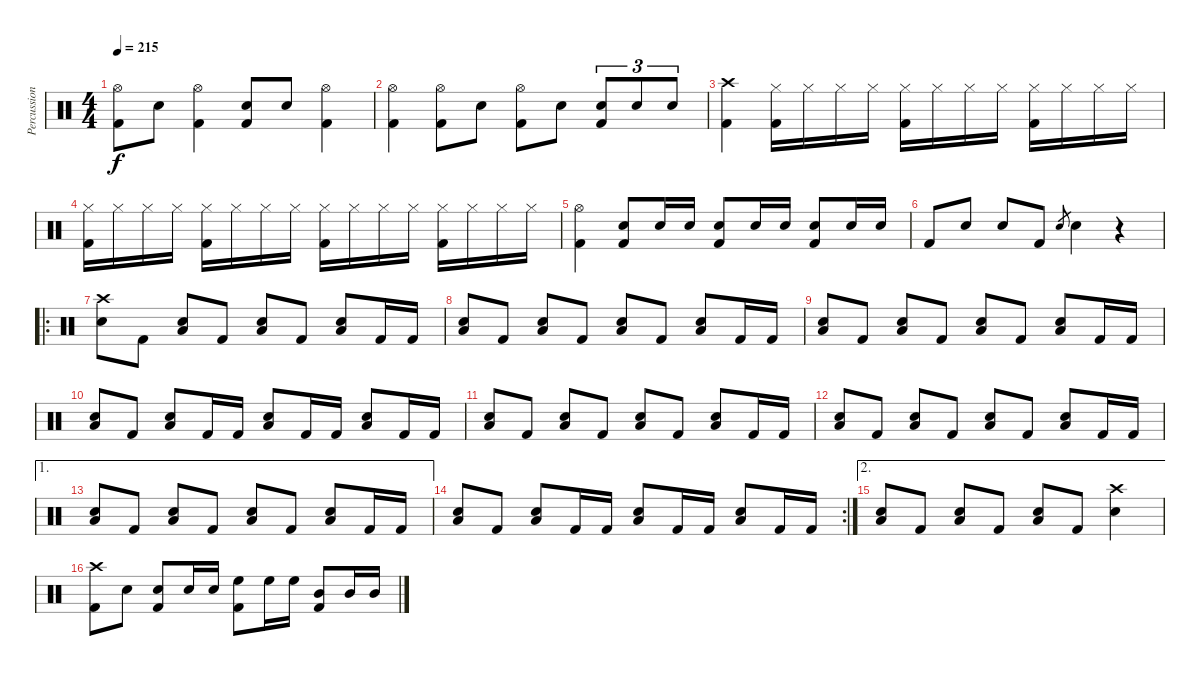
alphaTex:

\track ("Percussion" "Percussion") {instrument percussion}
\staff {score}
\articulation defaults
\ts (4 4)
\tempo 215
\clef neutral
\ks aminor
("Hi-Hat (open)" "Kick (hit) 2").8{dy f} "Snare (hit) 2".8 ("Hi-Hat (open)" "Kick (hit) 2").4 ("Snare (hit) 2" "Kick (hit) 2").8 "Snare (hit) 2".8 ("Hi-Hat (open)" "Kick (hit) 2").4 |
("Hi-Hat (open)" "Kick (hit) 2").4 ("Hi-Hat (open)" "Kick (hit) 2").8 "Snare (hit) 2".8 ("Hi-Hat (open)" "Kick (hit) 2").8 "Snare (hit) 2".8 ("Snare (hit) 2" "Kick (hit) 2").8{tu (3 2)} "Snare (hit) 2".8{tu (3 2)} "Snare (hit) 2".8{tu (3 2)} |
("Crash high (hit)" "Kick (hit) 2").4 ("Hi-Hat (closed)" "Kick (hit) 2").16 "Hi-Hat (closed)".16 "Hi-Hat (closed)".16 "Hi-Hat (closed)".16 ("Hi-Hat (closed)" "Kick (hit) 2").16 "Hi-Hat (closed)".16 "Hi-Hat (closed)".16 "Hi-Hat (closed)".16 ("Hi-Hat (closed)" "Kick (hit) 2").16 "Hi-Hat (closed)".16 "Hi-Hat (closed)".16 "Hi-Hat (closed)".16 |
("Hi-Hat (closed)" "Kick (hit) 2").16 "Hi-Hat (closed)".16 "Hi-Hat (closed)".16 "Hi-Hat (closed)".16 ("Hi-Hat (closed)" "Kick (hit) 2").16 "Hi-Hat (closed)".16 "Hi-Hat (closed)".16 "Hi-Hat (closed)".16 ("Hi-Hat (closed)" "Kick (hit) 2").16 "Hi-Hat (closed)".16 "Hi-Hat (closed)".16 "Hi-Hat (closed)".16 ("Hi-Hat (closed)" "Kick (hit) 2").16 "Hi-Hat (closed)".16 "Hi-Hat (closed)".16 "Hi-Hat (closed)".16 |
("Hi-Hat (open)" "Kick (hit) 2").4 ("Snare (hit) 2" "Kick (hit) 2").8 "Snare (hit) 2".16 "Snare (hit) 2".16 ("Snare (hit) 2" "Kick (hit) 2").8 "Snare (hit) 2".16 "Snare (hit) 2".16 ("Snare (hit) 2" "Kick (hit) 2").8 "Snare (hit) 2".16 "Snare (hit) 2".16 |
"Kick (hit) 2".8 "Snare (hit) 2".8 "Snare (hit) 2".8 "Kick (hit) 2".8 "Snare (hit) 2".8{gr} "Snare (hit) 2".4 r.4 |
\ro
("Crash high (hit)" "Snare (hit) 2").8 "Kick (hit) 2".8 ("Low Tom (hit)" "Snare (hit) 2").8 "Kick (hit) 2".8 ("Low Tom (hit)" "Snare (hit) 2").8 "Kick (hit) 2".8 ("Low Tom (hit)" "Snare (hit) 2").8 "Kick (hit) 2".16 "Kick (hit) 2".16 |
("Snare (hit) 2" "Low Tom (hit)").8 "Kick (hit) 2".8 ("Low Tom (hit)" "Snare (hit) 2").8 "Kick (hit) 2".8 ("Low Tom (hit)" "Snare (hit) 2").8 "Kick (hit) 2".8 ("Low Tom (hit)" "Snare (hit) 2").8 "Kick (hit) 2".16 "Kick (hit) 2".16 |
("Snare (hit) 2" "Low Tom (hit)").8 "Kick (hit) 2".8 ("Low Tom (hit)" "Snare (hit) 2").8 "Kick (hit) 2".8 ("Low Tom (hit)" "Snare (hit) 2").8 "Kick (hit) 2".8 ("Low Tom (hit)" "Snare (hit) 2").8 "Kick (hit) 2".16 "Kick (hit) 2".16 |
("Snare (hit) 2" "Low Tom (hit)").8 "Kick (hit) 2".8 ("Low Tom (hit)" "Snare (hit) 2").8 "Kick (hit) 2".16 "Kick (hit) 2".16 ("Low Tom (hit)" "Snare (hit) 2").8 "Kick (hit) 2".16 "Kick (hit) 2".16 ("Low Tom (hit)" "Snare (hit) 2").8 "Kick (hit) 2".16 "Kick (hit) 2".16 |
("Snare (hit) 2" "Low Tom (hit)").8 "Kick (hit) 2".8 ("Low Tom (hit)" "Snare (hit) 2").8 "Kick (hit) 2".8 ("Low Tom (hit)" "Snare (hit) 2").8 "Kick (hit) 2".8 ("Low Tom (hit)" "Snare (hit) 2").8 "Kick (hit) 2".16 "Kick (hit) 2".16 |
("Snare (hit) 2" "Low Tom (hit)").8 "Kick (hit) 2".8 ("Low Tom (hit)" "Snare (hit) 2").8 "Kick (hit) 2".8 ("Low Tom (hit)" "Snare (hit) 2").8 "Kick (hit) 2".8 ("Low Tom (hit)" "Snare (hit) 2").8 "Kick (hit) 2".16 "Kick (hit) 2".16 |
\ae 1
("Snare (hit) 2" "Low Tom (hit)").8 "Kick (hit) 2".8 ("Low Tom (hit)" "Snare (hit) 2").8 "Kick (hit) 2".8 ("Low Tom (hit)" "Snare (hit) 2").8 "Kick (hit) 2".8 ("Low Tom (hit)" "Snare (hit) 2").8 "Kick (hit) 2".16 "Kick (hit) 2".16 |
\rc 2
("Snare (hit) 2" "Low Tom (hit)").8 "Kick (hit) 2".8 ("Low Tom (hit)" "Snare (hit) 2").8 "Kick (hit) 2".16 "Kick (hit) 2".16 ("Low Tom (hit)" "Snare (hit) 2").8 "Kick (hit) 2".16 "Kick (hit) 2".16 ("Low Tom (hit)" "Snare (hit) 2").8 "Kick (hit) 2".16 "Kick (hit) 2".16 |
\ae 2
("Snare (hit) 2" "Low Tom (hit)").8 "Kick (hit) 2".8 ("Low Tom (hit)" "Snare (hit) 2").8 "Kick (hit) 2".8 ("Low Tom (hit)" "Snare (hit) 2").8 "Kick (hit) 2".8 ("Crash high (hit)" "Snare (hit) 2").4 |
("Crash high (hit)" "Kick (hit) 2").8 "Snare (hit) 2".8 ("Snare (hit) 2" "Kick (hit) 2").8 "Snare (hit) 2".16 "Snare (hit) 2".16 ("High Floor Tom (hit)" "Kick (hit) 2").8 "High Floor Tom (hit)".16 "High Floor Tom (hit)".16 ("Mid Tom (hit)" "Kick (hit) 2").8 "Mid Tom (hit)".16 "Mid Tom (hit)".16
